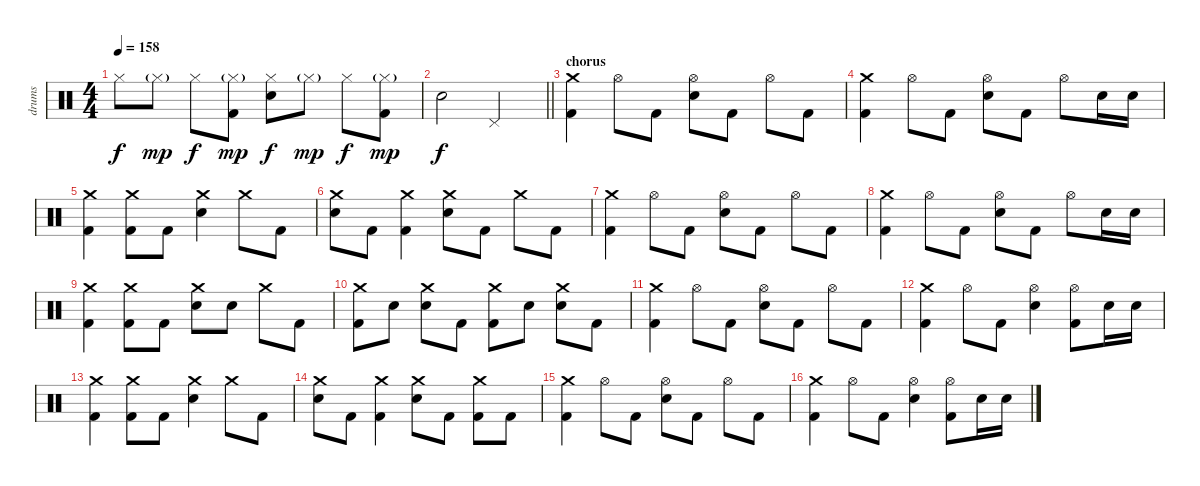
\track ("drums" "drums") {instrument percussion}
\staff {score}
\articulation defaults
\ts (4 4)
\tempo 158
\clef neutral
\ks c "Hi-Hat (closed)".8{dy f} "Hi-Hat (closed)"{g}.8{dy mp} "Hi-Hat (closed)".8{dy f}
("Hi-Hat (closed)"{g} "Kick (hit) 2").8{dy mp} ("Hi-Hat (closed)" "Electric Snare (hit)").8{dy f} "Hi-Hat (closed)"{g}.8{dy mp} "Hi-Hat (closed)".8{dy f} ("Hi-Hat (closed)"{g} "Kick (hit) 2").8{dy mp} |
\barLineRight lightlight "Electric Snare (hit)".2{dy f} "Pedal Hi-Hat (hit)".2
|
\section ("" "chorus")
("Crash medium (hit)" "Kick (hit) 2").4 "Hi-Hat (open)".8 "Kick (hit) 2".8 ("Hi-Hat (open)" "Electric Snare (hit)").8 "Kick (hit) 2".8 "Hi-Hat (open)".8 "Kick (hit) 2".8 |
("Crash medium (hit)" "Kick (hit) 2").4 "Hi-Hat (open)".8 "Kick (hit) 2".8 ("Hi-Hat (open)" "Electric Snare (hit)").8 "Kick (hit) 2".8 "Hi-Hat (open)".8 "Electric Snare (hit)".16 "Electric Snare (hit)".16 |
("Crash medium (hit)" "Kick (hit) 2").4 ("Crash medium (hit)" "Kick (hit) 2").8 "Kick (hit) 2".8 ("Crash medium (hit)" "Electric Snare (hit)").4 "Crash medium (hit)".8 "Kick (hit) 2".8 |
("Crash medium (hit)" "Electric Snare (hit)").8 "Kick (hit) 2".8 ("Crash medium (hit)" "Kick (hit) 2").4 ("Crash medium (hit)" "Electric Snare (hit)").8 "Kick (hit) 2".8 "Crash medium (hit)".8 "Kick (hit) 2".8 |
("Crash medium (hit)" "Kick (hit) 2").4 "Hi-Hat (open)".8 "Kick (hit) 2".8 ("Hi-Hat (open)" "Electric Snare (hit)").8 "Kick (hit) 2".8 "Hi-Hat (open)".8 "Kick (hit) 2".8 |
("Crash medium (hit)" "Kick (hit) 2").4 "Hi-Hat (open)".8 "Kick (hit) 2".8 ("Hi-Hat (open)" "Electric Snare (hit)").8 "Kick (hit) 2".8 "Hi-Hat (open)".8 "Electric Snare (hit)".16 "Electric Snare (hit)".16 |
("Crash medium (hit)" "Kick (hit) 2").4 ("Crash medium (hit)" "Kick (hit) 2").8 "Kick (hit) 2".8 ("Crash medium (hit)" "Electric Snare (hit)").8 "Electric Snare (hit)".8 "Crash medium (hit)".8 "Kick (hit) 2".8 |
("Crash medium (hit)" "Kick (hit) 2").8 "Electric Snare (hit)".8 ("Crash medium (hit)" "Electric Snare (hit)").8 "Kick (hit) 2".8 ("Crash medium (hit)" "Kick (hit) 2").8 "Electric Snare (hit)".8 ("Crash medium (hit)" "Electric Snare (hit)").8 "Kick (hit) 2".8 |
("Crash medium (hit)" "Kick (hit) 2").4 "Hi-Hat (open)".8 "Kick (hit) 2".8 ("Hi-Hat (open)" "Electric Snare (hit)").8 "Kick (hit) 2".8 "Hi-Hat (open)".8 "Kick (hit) 2".8 |
("Crash medium (hit)" "Kick (hit) 2").4 "Hi-Hat (open)".8 "Kick (hit) 2".8 ("Hi-Hat (open)" "Electric Snare (hit)").4 ("Hi-Hat (open)" "Kick (hit) 2").8 "Electric Snare (hit)".16 "Electric Snare (hit)".16 |
("Crash medium (hit)" "Kick (hit) 2").4 ("Crash medium (hit)" "Kick (hit) 2").8 "Kick (hit) 2".8 ("Crash medium (hit)" "Electric Snare (hit)").4 "Crash medium (hit)".8 "Kick (hit) 2".8 |
("Crash medium (hit)" "Electric Snare (hit)").8 "Kick (hit) 2".8 ("Crash medium (hit)" "Kick (hit) 2").4 ("Crash medium (hit)" "Electric Snare (hit)").8 "Kick (hit) 2".8 ("Crash medium (hit)" "Kick (hit) 2").8 "Kick (hit) 2".8 |
("Crash medium (hit)" "Kick (hit) 2").4 "Hi-Hat (open)".8 "Kick (hit) 2".8 ("Hi-Hat (open)" "Electric Snare (hit)").8 "Kick (hit) 2".8 "Hi-Hat (open)".8 "Kick (hit) 2".8 |
("Crash medium (hit)" "Kick (hit) 2").4 "Hi-Hat (open)".8 "Kick (hit) 2".8 ("Hi-Hat (open)" "Electric Snare (hit)").4 ("Hi-Hat (open)" "Kick (hit) 2").8 "Electric Snare (hit)".16 "Electric Snare (hit)".16
